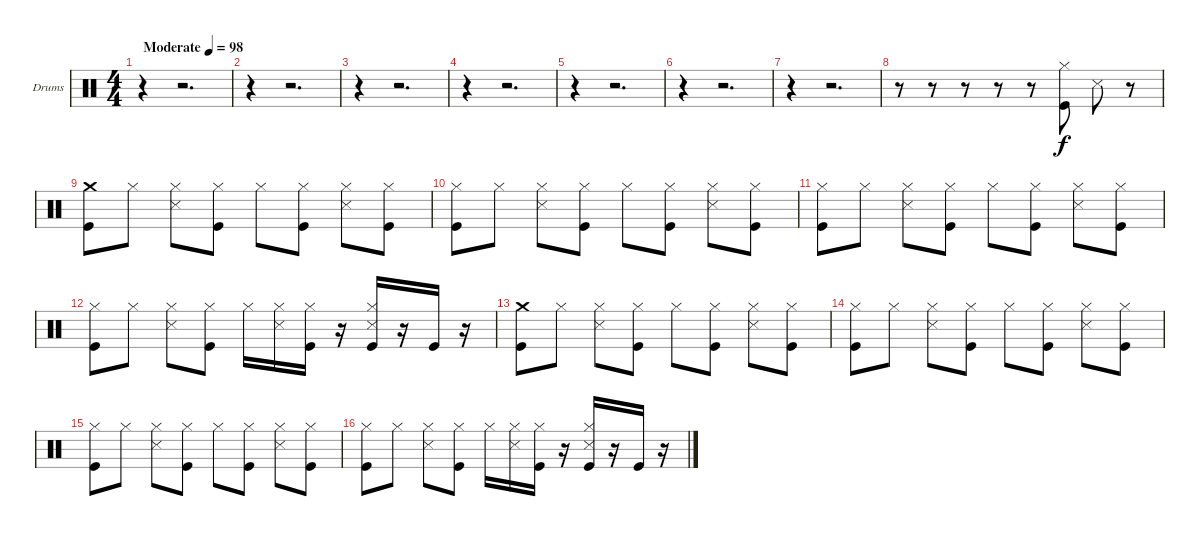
\bracketExtendMode groupsimilarinstruments
\firstSystemTrackNameOrientation horizontal
\otherSystemsTrackNameOrientation horizontal
\track ("Drumkit" "Drums") {instrument percussion}
\staff {score}
\articulation defaults
\ts (4 4)
\beaming (8 2 2 2 2)
\tempo (98 "Moderate")
\clef neutral
\ks c
r.4{dy f} r.2{d} |
r.4 r.2{d} |
r.4 r.2{d} |
r.4 r.2{d} |
r.4 r.2{d} |
r.4 r.2{d} |
r.4 r.2{d} |
r.8 r.8 r.8 r.8 r.8 ("Kick (hit)" "Hi-Hat (closed)").8 "Snare (side stick) 3".8 r.8 |
("Kick (hit)" "Crash medium (hit)").8 "Hi-Hat (closed)".8 ("Snare (side stick) 3" "Hi-Hat (closed)").8 ("Kick (hit)" "Hi-Hat (closed)").8 "Hi-Hat (closed)".8 ("Kick (hit)" "Hi-Hat (closed)").8 ("Snare (side stick) 3" "Hi-Hat (closed)").8 ("Kick (hit)" "Hi-Hat (closed)").8 |
("Kick (hit)" "Hi-Hat (closed)").8 "Hi-Hat (closed)".8 ("Snare (side stick) 3" "Hi-Hat (closed)").8 ("Kick (hit)" "Hi-Hat (closed)").8 "Hi-Hat (closed)".8 ("Kick (hit)" "Hi-Hat (closed)").8 ("Snare (side stick) 3" "Hi-Hat (closed)").8 ("Kick (hit)" "Hi-Hat (closed)").8 |
("Kick (hit)" "Hi-Hat (closed)").8 "Hi-Hat (closed)".8 ("Snare (side stick) 3" "Hi-Hat (closed)").8 ("Kick (hit)" "Hi-Hat (closed)").8 "Hi-Hat (closed)".8 ("Kick (hit)" "Hi-Hat (closed)").8 ("Snare (side stick) 3" "Hi-Hat (closed)").8 ("Kick (hit)" "Hi-Hat (closed)").8 |
("Kick (hit)" "Hi-Hat (closed)").8 "Hi-Hat (closed)".8 ("Snare (side stick) 3" "Hi-Hat (closed)").8 ("Kick (hit)" "Hi-Hat (closed)").8 "Hi-Hat (closed)".16 ("Hi-Hat (closed)" "Snare (side stick) 3").16 ("Hi-Hat (closed)" "Kick (hit)").16 r.16 ("Hi-Hat (closed)" "Snare (side stick) 3" "Kick (hit)").16 r.16 "Kick (hit)".16 r.16 |
("Kick (hit)" "Crash medium (hit)").8 "Hi-Hat (closed)".8 ("Snare (side stick) 3" "Hi-Hat (closed)").8 ("Kick (hit)" "Hi-Hat (closed)").8 "Hi-Hat (closed)".8 ("Kick (hit)" "Hi-Hat (closed)").8 ("Snare (side stick) 3" "Hi-Hat (closed)").8 ("Kick (hit)" "Hi-Hat (closed)").8 |
("Kick (hit)" "Hi-Hat (closed)").8 "Hi-Hat (closed)".8 ("Snare (side stick) 3" "Hi-Hat (closed)").8 ("Kick (hit)" "Hi-Hat (closed)").8 "Hi-Hat (closed)".8 ("Kick (hit)" "Hi-Hat (closed)").8 ("Snare (side stick) 3" "Hi-Hat (closed)").8 ("Kick (hit)" "Hi-Hat (closed)").8 |
("Kick (hit)" "Hi-Hat (closed)").8 "Hi-Hat (closed)".8 ("Snare (side stick) 3" "Hi-Hat (closed)").8 ("Kick (hit)" "Hi-Hat (closed)").8 "Hi-Hat (closed)".8 ("Kick (hit)" "Hi-Hat (closed)").8 ("Snare (side stick) 3" "Hi-Hat (closed)").8 ("Kick (hit)" "Hi-Hat (closed)").8 |
("Kick (hit)" "Hi-Hat (closed)").8 "Hi-Hat (closed)".8 ("Snare (side stick) 3" "Hi-Hat (closed)").8 ("Kick (hit)" "Hi-Hat (closed)").8 "Hi-Hat (closed)".16 ("Hi-Hat (closed)" "Snare (side stick) 3").16 ("Hi-Hat (closed)" "Kick (hit)").16 r.16 ("Hi-Hat (closed)" "Snare (side stick) 3" "Kick (hit)").16 r.16 "Kick (hit)".16 r.16
